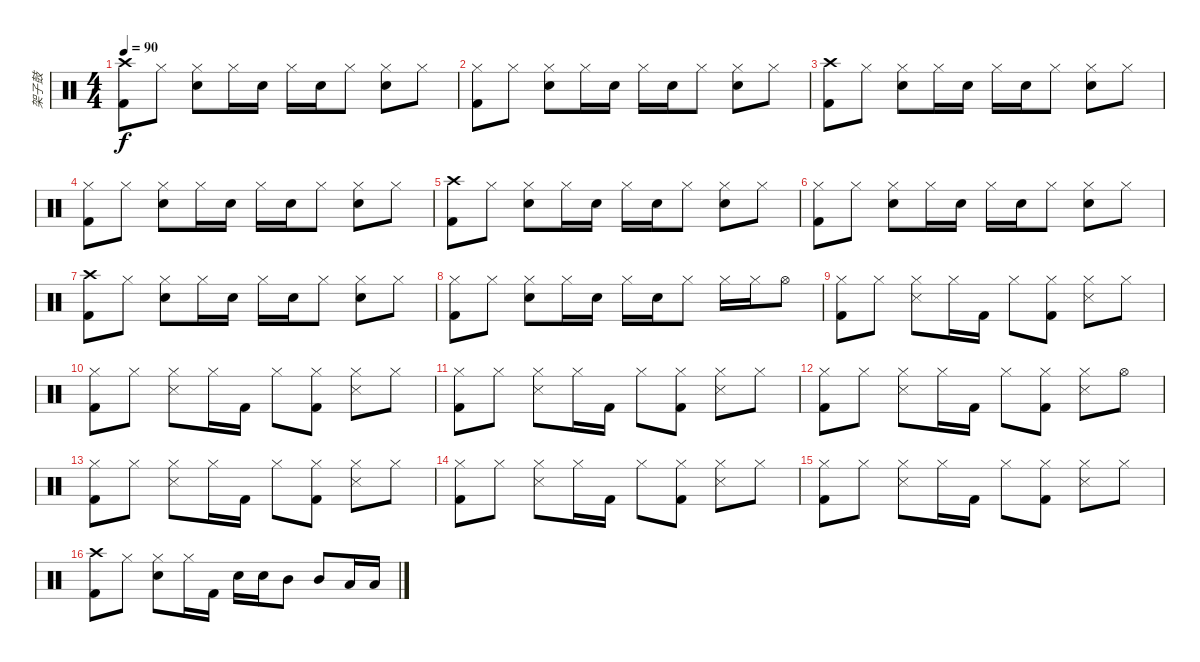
\track ("架子鼓" "架子鼓") {instrument percussion}
\staff {score}
\articulation defaults
\ts (4 4)
\tempo 90
\clef neutral
\ks c
("Crash high (hit)" "Kick (hit) 2").8{dy f} "Hi-Hat (closed)".8 ("Hi-Hat (closed)" "Snare (hit) 2").8 "Hi-Hat (closed)".16 "Snare (hit) 2".16 "Hi-Hat (closed)".16 "Snare (hit) 2".16 "Hi-Hat (closed)".8 ("Hi-Hat (closed)" "Snare (hit) 2").8 "Hi-Hat (closed)".8 |
("Hi-Hat (closed)" "Kick (hit) 2").8 "Hi-Hat (closed)".8 ("Hi-Hat (closed)" "Snare (hit) 2").8 "Hi-Hat (closed)".16 "Snare (hit) 2".16 "Hi-Hat (closed)".16 "Snare (hit) 2".16 "Hi-Hat (closed)".8 ("Hi-Hat (closed)" "Snare (hit) 2").8 "Hi-Hat (closed)".8 |
("Crash high (hit)" "Kick (hit) 2").8 "Hi-Hat (closed)".8 ("Hi-Hat (closed)" "Snare (hit) 2").8 "Hi-Hat (closed)".16 "Snare (hit) 2".16 "Hi-Hat (closed)".16 "Snare (hit) 2".16 "Hi-Hat (closed)".8 ("Hi-Hat (closed)" "Snare (hit) 2").8 "Hi-Hat (closed)".8 |
("Hi-Hat (closed)" "Kick (hit) 2").8 "Hi-Hat (closed)".8 ("Hi-Hat (closed)" "Snare (hit) 2").8 "Hi-Hat (closed)".16 "Snare (hit) 2".16 "Hi-Hat (closed)".16 "Snare (hit) 2".16 "Hi-Hat (closed)".8 ("Hi-Hat (closed)" "Snare (hit) 2").8 "Hi-Hat (closed)".8 |
("Crash high (hit)" "Kick (hit) 2").8 "Hi-Hat (closed)".8 ("Hi-Hat (closed)" "Snare (hit) 2").8 "Hi-Hat (closed)".16 "Snare (hit) 2".16 "Hi-Hat (closed)".16 "Snare (hit) 2".16 "Hi-Hat (closed)".8 ("Hi-Hat (closed)" "Snare (hit) 2").8 "Hi-Hat (closed)".8 |
("Hi-Hat (closed)" "Kick (hit) 2").8 "Hi-Hat (closed)".8 ("Hi-Hat (closed)" "Snare (hit) 2").8 "Hi-Hat (closed)".16 "Snare (hit) 2".16 "Hi-Hat (closed)".16 "Snare (hit) 2".16 "Hi-Hat (closed)".8 ("Hi-Hat (closed)" "Snare (hit) 2").8 "Hi-Hat (closed)".8 |
("Crash high (hit)" "Kick (hit) 2").8 "Hi-Hat (closed)".8 ("Hi-Hat (closed)" "Snare (hit) 2").8 "Hi-Hat (closed)".16 "Snare (hit) 2".16 "Hi-Hat (closed)".16 "Snare (hit) 2".16 "Hi-Hat (closed)".8 ("Hi-Hat (closed)" "Snare (hit) 2").8 "Hi-Hat (closed)".8 |
("Hi-Hat (closed)" "Kick (hit) 2").8 "Hi-Hat (closed)".8 ("Hi-Hat (closed)" "Snare (hit) 2").8 "Hi-Hat (closed)".16 "Snare (hit) 2".16 "Hi-Hat (closed)".16 "Snare (hit) 2".16 "Hi-Hat (closed)".8 "Hi-Hat (closed)".16 "Hi-Hat (closed)".16 "Hi-Hat (open)".8 |
("Hi-Hat (closed)" "Kick (hit) 2").8 "Hi-Hat (closed)".8 ("Hi-Hat (closed)" "Snare (side stick) 3").8 "Hi-Hat (closed)".16 "Kick (hit) 2".16 "Hi-Hat (closed)".8 ("Hi-Hat (closed)" "Kick (hit) 2").8 ("Hi-Hat (closed)" "Snare (side stick) 3").8 "Hi-Hat (closed)".8 |
("Hi-Hat (closed)" "Kick (hit) 2").8 "Hi-Hat (closed)".8 ("Hi-Hat (closed)" "Snare (side stick) 3").8 "Hi-Hat (closed)".16 "Kick (hit) 2".16 "Hi-Hat (closed)".8 ("Hi-Hat (closed)" "Kick (hit) 2").8 ("Hi-Hat (closed)" "Snare (side stick) 3").8 "Hi-Hat (closed)".8 |
("Hi-Hat (closed)" "Kick (hit) 2").8 "Hi-Hat (closed)".8 ("Hi-Hat (closed)" "Snare (side stick) 3").8 "Hi-Hat (closed)".16 "Kick (hit) 2".16 "Hi-Hat (closed)".8 ("Hi-Hat (closed)" "Kick (hit) 2").8 ("Hi-Hat (closed)" "Snare (side stick) 3").8 "Hi-Hat (closed)".8 |
("Hi-Hat (closed)" "Kick (hit) 2").8 "Hi-Hat (closed)".8 ("Hi-Hat (closed)" "Snare (side stick) 3").8 "Hi-Hat (closed)".16 "Kick (hit) 2".16 "Hi-Hat (closed)".8 ("Hi-Hat (closed)" "Kick (hit) 2").8 ("Hi-Hat (closed)" "Snare (side stick) 3").8 "Hi-Hat (open)".8 |
("Hi-Hat (closed)" "Kick (hit) 2").8 "Hi-Hat (closed)".8 ("Hi-Hat (closed)" "Snare (side stick) 3").8 "Hi-Hat (closed)".16 "Kick (hit) 2".16 "Hi-Hat (closed)".8 ("Hi-Hat (closed)" "Kick (hit) 2").8 ("Hi-Hat (closed)" "Snare (side stick) 3").8 "Hi-Hat (closed)".8 |
("Hi-Hat (closed)" "Kick (hit) 2").8 "Hi-Hat (closed)".8 ("Hi-Hat (closed)" "Snare (side stick) 3").8 "Hi-Hat (closed)".16 "Kick (hit) 2".16 "Hi-Hat (closed)".8 ("Hi-Hat (closed)" "Kick (hit) 2").8 ("Hi-Hat (closed)" "Snare (side stick) 3").8 "Hi-Hat (closed)".8 |
("Hi-Hat (closed)" "Kick (hit) 2").8 "Hi-Hat (closed)".8 ("Hi-Hat (closed)" "Snare (side stick) 3").8 "Hi-Hat (closed)".16 "Kick (hit) 2".16 "Hi-Hat (closed)".8 ("Hi-Hat (closed)" "Kick (hit) 2").8 ("Hi-Hat (closed)" "Snare (side stick) 3").8 "Hi-Hat (closed)".8 |
("Crash high (hit)" "Kick (hit) 2").8 "Hi-Hat (closed)".8 ("Hi-Hat (closed)" "Snare (hit) 2").8 "Hi-Hat (closed)".16 "Kick (hit) 2".16 "Snare (hit) 2".16 "Snare (hit) 2".16 "Mid Tom (hit)".8 "Mid Tom (hit)".8 "Low Tom (hit)".16 "Low Tom (hit)".16
